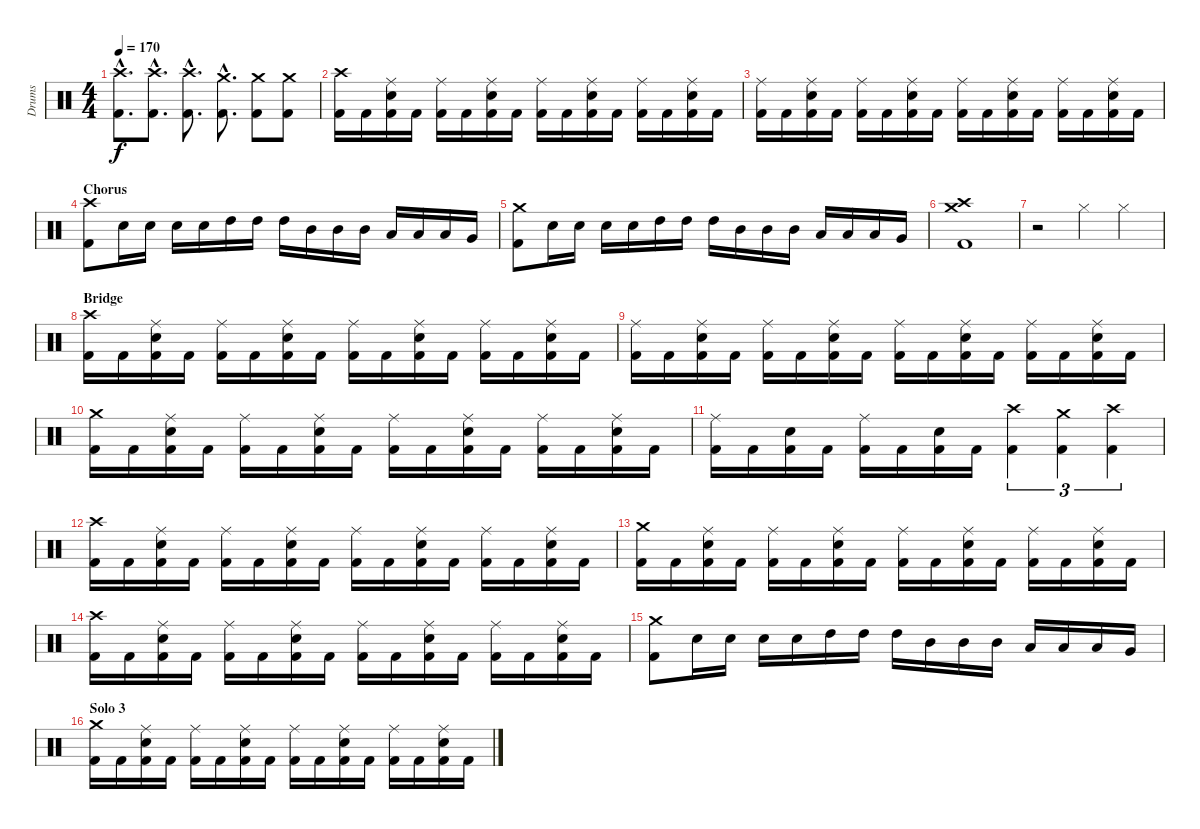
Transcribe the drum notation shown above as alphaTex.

\track ("Drums" "Drums") {instrument percussion}
\staff {score}
\articulation defaults
\ts (4 4)
\tempo 170
\clef neutral
\ks c
("Crash high (hit)"{hac} "Kick (hit) 2"{hac}).8{d dy f} ("Crash high (hit)"{hac} "Kick (hit) 2"{hac}).8{d} ("Crash high (hit)"{hac} "Kick (hit) 2"{hac}).8{d} ("Crash medium (hit)"{hac} "Kick (hit) 2"{hac}).8{d} ("Crash medium (hit)" "Kick (hit) 2").8 ("Crash medium (hit)" "Kick (hit) 2").8 |
("Crash high (hit)" "Kick (hit) 2").16 "Kick (hit) 2".16 ("Ride (middle)" "Snare (hit) 2" "Kick (hit) 2").16 "Kick (hit) 2".16 ("Ride (middle)" "Kick (hit) 2").16 "Kick (hit) 2".16 ("Ride (middle)" "Snare (hit) 2" "Kick (hit) 2").16 "Kick (hit) 2".16 ("Ride (middle)" "Kick (hit) 2").16 "Kick (hit) 2".16 ("Ride (middle)" "Snare (hit) 2" "Kick (hit) 2").16 "Kick (hit) 2".16 ("Ride (middle)" "Kick (hit) 2").16 "Kick (hit) 2".16 ("Ride (middle)" "Snare (hit) 2" "Kick (hit) 2").16 "Kick (hit) 2".16 |
("Ride (middle)" "Kick (hit) 2").16 "Kick (hit) 2".16 ("Ride (middle)" "Snare (hit) 2" "Kick (hit) 2").16 "Kick (hit) 2".16 ("Ride (middle)" "Kick (hit) 2").16 "Kick (hit) 2".16 ("Ride (middle)" "Snare (hit) 2" "Kick (hit) 2").16 "Kick (hit) 2".16 ("Ride (middle)" "Kick (hit) 2").16 "Kick (hit) 2".16 ("Ride (middle)" "Snare (hit) 2" "Kick (hit) 2").16 "Kick (hit) 2".16 ("Ride (middle)" "Kick (hit) 2").16 "Kick (hit) 2".16 ("Ride (middle)" "Snare (hit) 2" "Kick (hit) 2").16 "Kick (hit) 2".16 |
\section ("" "Chorus")
("Crash high (hit)" "Kick (hit) 2").8 "Snare (hit) 2".16 "Snare (hit) 2".16 "Snare (hit) 2".16 "Snare (hit) 2".16 "High Tom (hit)".16 "High Tom (hit)".16 "High Tom (hit)".16 "Mid Tom (hit)".16 "Mid Tom (hit)".16 "Mid Tom (hit)".16 "Low Tom (hit)".16 "Low Tom (hit)".16 "Low Tom (hit)".16 "Very Low Tom (hit)".16 |
("Crash medium (hit)" "Kick (hit) 2").8 "Snare (hit) 2".16 "Snare (hit) 2".16 "Snare (hit) 2".16 "Snare (hit) 2".16 "High Tom (hit)".16 "High Tom (hit)".16 "High Tom (hit)".16 "Mid Tom (hit)".16 "Mid Tom (hit)".16 "Mid Tom (hit)".16 "Low Tom (hit)".16 "Low Tom (hit)".16 "Low Tom (hit)".16 "Very Low Tom (hit)".16 |
("Crash medium (hit)" "Crash high (hit)" "Kick (hit) 2").1 |
r.2 "Hi-Hat (closed)".4 "Hi-Hat (closed)".4 |
\section ("" "Bridge")
("Crash high (hit)" "Kick (hit) 2").16 "Kick (hit) 2".16 ("Ride (middle)" "Snare (hit) 2" "Kick (hit) 2").16 "Kick (hit) 2".16 ("Ride (middle)" "Kick (hit) 2").16 "Kick (hit) 2".16 ("Ride (middle)" "Snare (hit) 2" "Kick (hit) 2").16 "Kick (hit) 2".16 ("Ride (middle)" "Kick (hit) 2").16 "Kick (hit) 2".16 ("Ride (middle)" "Snare (hit) 2" "Kick (hit) 2").16 "Kick (hit) 2".16 ("Ride (middle)" "Kick (hit) 2").16 "Kick (hit) 2".16 ("Ride (middle)" "Snare (hit) 2" "Kick (hit) 2").16 "Kick (hit) 2".16 |
("Ride (middle)" "Kick (hit) 2").16 "Kick (hit) 2".16 ("Ride (middle)" "Snare (hit) 2" "Kick (hit) 2").16 "Kick (hit) 2".16 ("Ride (middle)" "Kick (hit) 2").16 "Kick (hit) 2".16 ("Ride (middle)" "Snare (hit) 2" "Kick (hit) 2").16 "Kick (hit) 2".16 ("Ride (middle)" "Kick (hit) 2").16 "Kick (hit) 2".16 ("Ride (middle)" "Snare (hit) 2" "Kick (hit) 2").16 "Kick (hit) 2".16 ("Ride (middle)" "Kick (hit) 2").16 "Kick (hit) 2".16 ("Ride (middle)" "Snare (hit) 2" "Kick (hit) 2").16 "Kick (hit) 2".16 |
("Crash medium (hit)" "Kick (hit) 2").16 "Kick (hit) 2".16 ("Ride (middle)" "Snare (hit) 2" "Kick (hit) 2").16 "Kick (hit) 2".16 ("Ride (middle)" "Kick (hit) 2").16 "Kick (hit) 2".16 ("Ride (middle)" "Snare (hit) 2" "Kick (hit) 2").16 "Kick (hit) 2".16 ("Ride (middle)" "Kick (hit) 2").16 "Kick (hit) 2".16 ("Ride (middle)" "Snare (hit) 2" "Kick (hit) 2").16 "Kick (hit) 2".16 ("Ride (middle)" "Kick (hit) 2").16 "Kick (hit) 2".16 ("Ride (middle)" "Snare (hit) 2" "Kick (hit) 2").16 "Kick (hit) 2".16 |
("Ride (middle)" "Kick (hit) 2").16 "Kick (hit) 2".16 ("Snare (hit) 2" "Kick (hit) 2").16 "Kick (hit) 2".16 ("Ride (middle)" "Kick (hit) 2").16 "Kick (hit) 2".16 ("Snare (hit) 2" "Kick (hit) 2").16 "Kick (hit) 2".16 ("Crash high (hit)" "Kick (hit) 2").4{tu (3 2)} ("Crash medium (hit)" "Kick (hit) 2").4{tu (3 2)} ("Crash high (hit)" "Kick (hit) 2").4{tu (3 2)} |
("Crash high (hit)" "Kick (hit) 2").16 "Kick (hit) 2".16 ("Ride (middle)" "Snare (hit) 2" "Kick (hit) 2").16 "Kick (hit) 2".16 ("Ride (middle)" "Kick (hit) 2").16 "Kick (hit) 2".16 ("Ride (middle)" "Snare (hit) 2" "Kick (hit) 2").16 "Kick (hit) 2".16 ("Ride (middle)" "Kick (hit) 2").16 "Kick (hit) 2".16 ("Ride (middle)" "Snare (hit) 2" "Kick (hit) 2").16 "Kick (hit) 2".16 ("Ride (middle)" "Kick (hit) 2").16 "Kick (hit) 2".16 ("Ride (middle)" "Snare (hit) 2" "Kick (hit) 2").16 "Kick (hit) 2".16 |
("Crash medium (hit)" "Kick (hit) 2").16 "Kick (hit) 2".16 ("Ride (middle)" "Snare (hit) 2" "Kick (hit) 2").16 "Kick (hit) 2".16 ("Ride (middle)" "Kick (hit) 2").16 "Kick (hit) 2".16 ("Ride (middle)" "Snare (hit) 2" "Kick (hit) 2").16 "Kick (hit) 2".16 ("Ride (middle)" "Kick (hit) 2").16 "Kick (hit) 2".16 ("Ride (middle)" "Snare (hit) 2" "Kick (hit) 2").16 "Kick (hit) 2".16 ("Ride (middle)" "Kick (hit) 2").16 "Kick (hit) 2".16 ("Ride (middle)" "Snare (hit) 2" "Kick (hit) 2").16 "Kick (hit) 2".16 |
("Crash high (hit)" "Kick (hit) 2").16 "Kick (hit) 2".16 ("Ride (middle)" "Snare (hit) 2" "Kick (hit) 2").16 "Kick (hit) 2".16 ("Ride (middle)" "Kick (hit) 2").16 "Kick (hit) 2".16 ("Ride (middle)" "Snare (hit) 2" "Kick (hit) 2").16 "Kick (hit) 2".16 ("Ride (middle)" "Kick (hit) 2").16 "Kick (hit) 2".16 ("Ride (middle)" "Snare (hit) 2" "Kick (hit) 2").16 "Kick (hit) 2".16 ("Ride (middle)" "Kick (hit) 2").16 "Kick (hit) 2".16 ("Ride (middle)" "Snare (hit) 2" "Kick (hit) 2").16 "Kick (hit) 2".16 |
("Crash medium (hit)" "Kick (hit) 2").8 "Snare (hit) 2".16 "Snare (hit) 2".16 "Snare (hit) 2".16 "Snare (hit) 2".16 "High Tom (hit)".16 "High Tom (hit)".16 "High Tom (hit)".16 "Mid Tom (hit)".16 "Mid Tom (hit)".16 "Mid Tom (hit)".16 "Low Tom (hit)".16 "Low Tom (hit)".16 "Low Tom (hit)".16 "Very Low Tom (hit)".16 |
\section ("" "Solo 3")
("Crash medium (hit)" "Kick (hit) 2").16 "Kick (hit) 2".16 ("Ride (middle)" "Snare (hit) 2" "Kick (hit) 2").16 "Kick (hit) 2".16 ("Ride (middle)" "Kick (hit) 2").16 "Kick (hit) 2".16 ("Ride (middle)" "Snare (hit) 2" "Kick (hit) 2").16 "Kick (hit) 2".16 ("Ride (middle)" "Kick (hit) 2").16 "Kick (hit) 2".16 ("Ride (middle)" "Snare (hit) 2" "Kick (hit) 2").16 "Kick (hit) 2".16 ("Ride (middle)" "Kick (hit) 2").16 "Kick (hit) 2".16 ("Ride (middle)" "Snare (hit) 2" "Kick (hit) 2").16 "Kick (hit) 2".16
